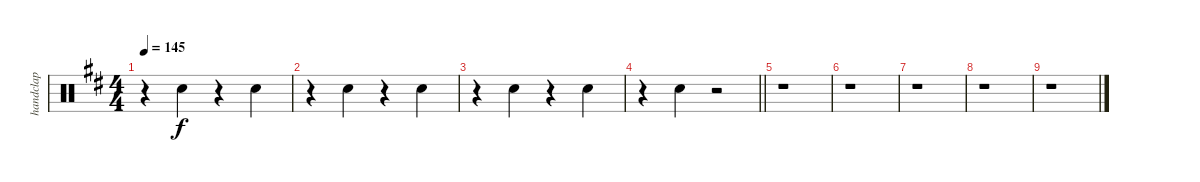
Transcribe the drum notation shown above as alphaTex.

\track ("handclap" "handclap") {instrument percussion}
\staff {score}
\articulation defaults
\ts (4 4)
\tempo 145
\clef neutral
\ks d
r.4{dy f} "Hand Clap (hit)".4 r.4 "Hand Clap (hit)".4 |
r.4 "Hand Clap (hit)".4 r.4 "Hand Clap (hit)".4 |
r.4 "Hand Clap (hit)".4 r.4 "Hand Clap (hit)".4 |
\barLineRight lightlight
r.4 "Hand Clap (hit)".4 r.2 |
r.1 |
r.1 |
r.1 |
r.1 |
r.1
